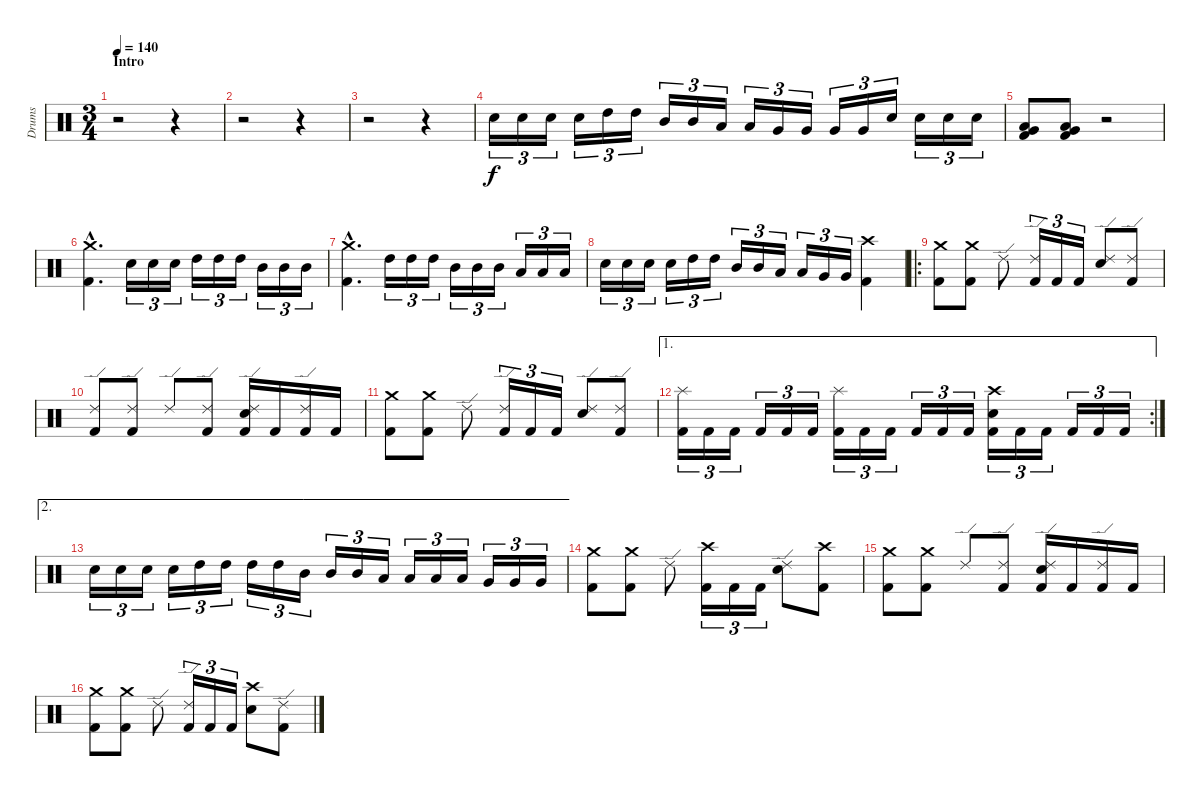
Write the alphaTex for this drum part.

\track ("Drums" "Drums") {instrument percussion}
\staff {score}
\articulation defaults
\ts (3 4)
\section ("" "Intro")
\tempo 140
\clef neutral
\ks c
r.2{dy f} r.4 |
r.2 r.4 |
r.2 r.4 |
"Electric Snare (hit)".16{tu (3 2)} "Electric Snare (hit)".16{tu (3 2)} "Electric Snare (hit)".16{tu (3 2)} "Electric Snare (hit)".16{tu (3 2)} "High Tom (hit)".16{tu (3 2)} "High Tom (hit)".16{tu (3 2)} "Mid Tom (hit)".16{tu (3 2)} "Mid Tom (hit)".16{tu (3 2)} "Low Tom (hit)".16{tu (3 2)} "Low Tom (hit)".16{tu (3 2)} "Very Low Tom (hit)".16{tu (3 2)} "Very Low Tom (hit)".16{tu (3 2)} "Very Low Tom (hit)".16{tu (3 2)} "Very Low Tom (hit)".16{tu (3 2)} "Electric Snare (hit)".16{tu (3 2)} "Electric Snare (hit)".16{tu (3 2)} "Electric Snare (hit)".16{tu (3 2)} "Electric Snare (hit)".16{tu (3 2)} |
("Kick (hit) 2" "Low Tom (hit)" "Very Low Tom (hit)").8 ("Kick (hit) 2" "Low Tom (hit)" "Very Low Tom (hit)").8 r.2 |
("Kick (hit) 2"{hac} "Crash medium (hit)"{hac}).4{d} "Electric Snare (hit)".16{tu (3 2)} "Electric Snare (hit)".16{tu (3 2)} "Electric Snare (hit)".16{tu (3 2)} "High Tom (hit)".16{tu (3 2)} "High Tom (hit)".16{tu (3 2)} "High Tom (hit)".16{tu (3 2)} "Mid Tom (hit)".16{tu (3 2)} "Mid Tom (hit)".16{tu (3 2)} "Mid Tom (hit)".16{tu (3 2)} |
("Kick (hit) 2"{hac} "Crash medium (hit)"{hac}).4{d} "High Tom (hit)".16{tu (3 2)} "High Tom (hit)".16{tu (3 2)} "High Tom (hit)".16{tu (3 2)} "Mid Tom (hit)".16{tu (3 2)} "Mid Tom (hit)".16{tu (3 2)} "Mid Tom (hit)".16{tu (3 2)} "Low Tom (hit)".16{tu (3 2)} "Low Tom (hit)".16{tu (3 2)} "Low Tom (hit)".16{tu (3 2)} |
"Electric Snare (hit)".16{tu (3 2)} "Electric Snare (hit)".16{tu (3 2)} "Electric Snare (hit)".16{tu (3 2)} "Electric Snare (hit)".16{tu (3 2)} "High Tom (hit)".16{tu (3 2)} "High Tom (hit)".16{tu (3 2)} "Mid Tom (hit)".16{tu (3 2)} "Mid Tom (hit)".16{tu (3 2)} "Low Tom (hit)".16{tu (3 2)} "Low Tom (hit)".16{tu (3 2)} "Very Low Tom (hit)".16{tu (3 2)} "Very Low Tom (hit)".16{tu (3 2)} ("Kick (hit) 2" "Crash high (hit)").4 |
\ro
("Kick (hit) 2" "Crash medium (hit)").8 ("Kick (hit) 2" "Crash medium (hit)").8 "Ride (edge) 2".8 ("Kick (hit) 2" "Ride (edge) 2").16{tu (3 2)} "Kick (hit) 2".16{tu (3 2)} "Kick (hit) 2".16{tu (3 2)} ("Electric Snare (hit)" "Ride (edge) 2").8 ("Kick (hit) 2" "Ride (edge) 2").8 |
("Kick (hit) 2" "Ride (edge) 2").8 ("Kick (hit) 2" "Ride (edge) 2").8 "Ride (edge) 2".8 ("Kick (hit) 2" "Ride (edge) 2").8 ("Kick (hit) 2" "Electric Snare (hit)" "Ride (edge) 2").16 "Kick (hit) 2".16 ("Kick (hit) 2" "Ride (edge) 2").16 "Kick (hit) 2".16 |
("Kick (hit) 2" "Crash medium (hit)").8 ("Kick (hit) 2" "Crash medium (hit)").8 "Ride (edge) 2".8 ("Kick (hit) 2" "Ride (edge) 2").16{tu (3 2)} "Kick (hit) 2".16{tu (3 2)} "Kick (hit) 2".16{tu (3 2)} ("Electric Snare (hit)" "Ride (edge) 2").8 ("Kick (hit) 2" "Ride (edge) 2").8 |
\ae 1
\rc 2
("Kick (hit) 2" "Splash (hit)").16{tu (3 2)} "Kick (hit) 2".16{tu (3 2)} "Kick (hit) 2".16{tu (3 2)} "Kick (hit) 2".16{tu (3 2)} "Kick (hit) 2".16{tu (3 2)} "Kick (hit) 2".16{tu (3 2)} ("Kick (hit) 2" "Splash (hit)").16{tu (3 2)} "Kick (hit) 2".16{tu (3 2)} "Kick (hit) 2".16{tu (3 2)} "Kick (hit) 2".16{tu (3 2)} "Kick (hit) 2".16{tu (3 2)} "Kick (hit) 2".16{tu (3 2)} ("Kick (hit) 2" "Electric Snare (hit)" "Crash high (hit)").16{tu (3 2)} "Kick (hit) 2".16{tu (3 2)} "Kick (hit) 2".16{tu (3 2)} "Kick (hit) 2".16{tu (3 2)} "Kick (hit) 2".16{tu (3 2)} "Kick (hit) 2".16{tu (3 2)} |
\ae 2 "Electric Snare (hit)".16{tu (3 2)} "Electric Snare (hit)".16{tu (3 2)} "Electric Snare (hit)".16{tu (3 2)} "Electric Snare (hit)".16{tu (3 2)} "High Tom (hit)".16{tu (3 2)} "High Tom (hit)".16{tu (3 2)} "High Tom (hit)".16{tu (3 2)} "High Tom (hit)".16{tu (3 2)} "Mid Tom (hit)".16{tu (3 2)} "Mid Tom (hit)".16{tu (3 2)} "Mid Tom (hit)".16{tu (3 2)} "Low Tom (hit)".16{tu (3 2)} "Low Tom (hit)".16{tu (3 2)} "Low Tom (hit)".16{tu (3 2)} "Low Tom (hit)".16{tu (3 2)} "Very Low Tom (hit)".16{tu (3 2)} "Very Low Tom (hit)".16{tu (3 2)} "Very Low Tom (hit)".16{tu (3 2)}
|
("Kick (hit) 2" "Crash medium (hit)").8 ("Kick (hit) 2" "Crash medium (hit)").8 "Ride (edge) 2".8 ("Kick (hit) 2" "Crash high (hit)").16{tu (3 2)} "Kick (hit) 2".16{tu (3 2)} "Kick (hit) 2".16{tu (3 2)} ("Electric Snare (hit)" "Ride (edge) 2").8 ("Kick (hit) 2" "Crash high (hit)").8 |
("Kick (hit) 2" "Crash medium (hit)").8 ("Kick (hit) 2" "Crash medium (hit)").8 "Ride (edge) 2".8 ("Kick (hit) 2" "Ride (edge) 2").8 ("Kick (hit) 2" "Electric Snare (hit)" "Ride (edge) 2").16 "Kick (hit) 2".16 ("Kick (hit) 2" "Ride (edge) 2").16 "Kick (hit) 2".16 |
("Kick (hit) 2" "Crash medium (hit)").8 ("Kick (hit) 2" "Crash medium (hit)").8 "Ride (edge) 2".8 ("Kick (hit) 2" "Ride (edge) 2").16{tu (3 2)} "Kick (hit) 2".16{tu (3 2)} "Kick (hit) 2".16{tu (3 2)} ("Electric Snare (hit)" "Crash high (hit)").8 ("Kick (hit) 2" "Ride (edge) 2").8
